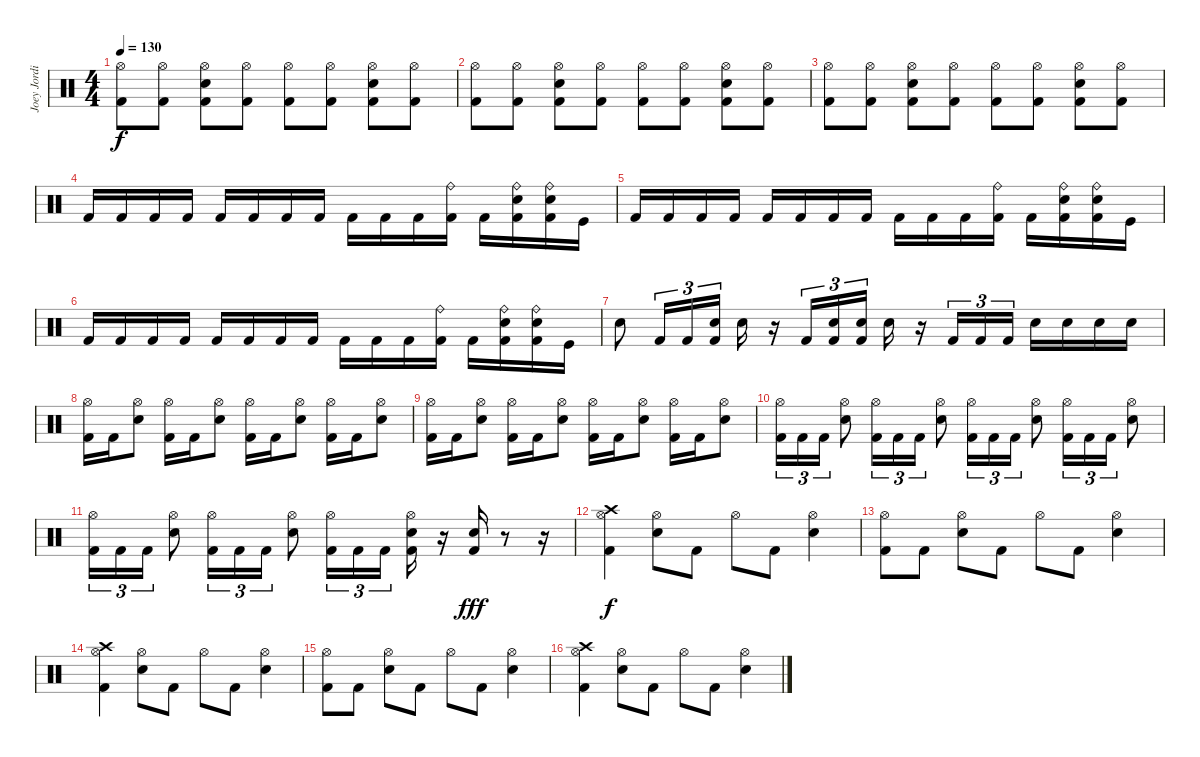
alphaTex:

\track ("Joey Jordison" "Joey Jordi") {instrument percussion}
\staff {score}
\articulation defaults
\ts (4 4)
\tempo 130
\clef neutral
\ks c
("Hi-Hat (open)" "Kick (hit) 2").8{dy f} ("Hi-Hat (open)" "Kick (hit) 2").8 ("Hi-Hat (open)" "Electric Snare (hit)" "Kick (hit) 2").8 ("Hi-Hat (open)" "Kick (hit) 2").8 ("Hi-Hat (open)" "Kick (hit) 2").8 ("Hi-Hat (open)" "Kick (hit) 2").8 ("Hi-Hat (open)" "Electric Snare (hit)" "Kick (hit) 2").8 ("Hi-Hat (open)" "Kick (hit) 2").8 |
("Hi-Hat (open)" "Kick (hit) 2").8 ("Hi-Hat (open)" "Kick (hit) 2").8 ("Hi-Hat (open)" "Electric Snare (hit)" "Kick (hit) 2").8 ("Hi-Hat (open)" "Kick (hit) 2").8 ("Hi-Hat (open)" "Kick (hit) 2").8 ("Hi-Hat (open)" "Kick (hit) 2").8 ("Hi-Hat (open)" "Electric Snare (hit)" "Kick (hit) 2").8 ("Hi-Hat (open)" "Kick (hit) 2").8 |
("Hi-Hat (open)" "Kick (hit) 2").8 ("Hi-Hat (open)" "Kick (hit) 2").8 ("Hi-Hat (open)" "Electric Snare (hit)" "Kick (hit) 2").8 ("Hi-Hat (open)" "Kick (hit) 2").8 ("Hi-Hat (open)" "Kick (hit) 2").8 ("Hi-Hat (open)" "Kick (hit) 2").8 ("Hi-Hat (open)" "Electric Snare (hit)" "Kick (hit) 2").8 ("Hi-Hat (open)" "Kick (hit) 2").8 |
"Kick (hit) 2".16 "Kick (hit) 2".16 "Kick (hit) 2".16 "Kick (hit) 2".16 "Kick (hit) 2".16 "Kick (hit) 2".16 "Kick (hit) 2".16 "Kick (hit) 2".16 "Kick (hit) 2".16 "Kick (hit) 2".16 "Kick (hit) 2".16 ("Ride (bell)" "Kick (hit) 2").16 "Kick (hit) 2".16 ("Ride (bell)" "Electric Snare (hit)" "Kick (hit) 2").16 ("Ride (bell)" "Electric Snare (hit)" "Kick (hit) 2").16 "Kick (hit)".16 |
"Kick (hit) 2".16 "Kick (hit) 2".16 "Kick (hit) 2".16 "Kick (hit) 2".16 "Kick (hit) 2".16 "Kick (hit) 2".16 "Kick (hit) 2".16 "Kick (hit) 2".16 "Kick (hit) 2".16 "Kick (hit) 2".16 "Kick (hit) 2".16 ("Ride (bell)" "Kick (hit) 2").16 "Kick (hit) 2".16 ("Ride (bell)" "Electric Snare (hit)" "Kick (hit) 2").16 ("Ride (bell)" "Electric Snare (hit)" "Kick (hit) 2").16 "Kick (hit)".16 |
"Kick (hit) 2".16 "Kick (hit) 2".16 "Kick (hit) 2".16 "Kick (hit) 2".16 "Kick (hit) 2".16 "Kick (hit) 2".16 "Kick (hit) 2".16 "Kick (hit) 2".16 "Kick (hit) 2".16 "Kick (hit) 2".16 "Kick (hit) 2".16 ("Ride (bell)" "Kick (hit) 2").16 "Kick (hit) 2".16 ("Ride (bell)" "Electric Snare (hit)" "Kick (hit) 2").16 ("Ride (bell)" "Electric Snare (hit)" "Kick (hit) 2").16 "Kick (hit)".16 |
"Electric Snare (hit)".8 "Kick (hit) 2".16{tu (3 2)} "Kick (hit) 2".16{tu (3 2)} ("Snare (hit)" "Kick (hit) 2").16{tu (3 2)} "Electric Snare (hit)".16 r.16 "Kick (hit) 2".16{tu (3 2)} ("Snare (hit)" "Kick (hit) 2").16{tu (3 2)} ("Snare (hit)" "Kick (hit) 2").16{tu (3 2)} "Electric Snare (hit)".16 r.16 "Kick (hit) 2".16{tu (3 2)} "Kick (hit) 2".16{tu (3 2)} "Kick (hit) 2".16{tu (3 2)} "Electric Snare (hit)".16 "Electric Snare (hit)".16 "Electric Snare (hit)".16 "Electric Snare (hit)".16 |
("Hi-Hat (open)" "Kick (hit) 2").16 "Kick (hit) 2".16 ("Hi-Hat (open)" "Electric Snare (hit)").8 ("Hi-Hat (open)" "Kick (hit) 2").16 "Kick (hit) 2".16 ("Hi-Hat (open)" "Electric Snare (hit)").8 ("Hi-Hat (open)" "Kick (hit) 2").16 "Kick (hit) 2".16 ("Hi-Hat (open)" "Electric Snare (hit)").8 ("Hi-Hat (open)" "Kick (hit) 2").16 "Kick (hit) 2".16 ("Hi-Hat (open)" "Electric Snare (hit)").8 |
("Hi-Hat (open)" "Kick (hit) 2").16 "Kick (hit) 2".16 ("Hi-Hat (open)" "Electric Snare (hit)").8 ("Hi-Hat (open)" "Kick (hit) 2").16 "Kick (hit) 2".16 ("Hi-Hat (open)" "Electric Snare (hit)").8 ("Hi-Hat (open)" "Kick (hit) 2").16 "Kick (hit) 2".16 ("Hi-Hat (open)" "Electric Snare (hit)").8 ("Hi-Hat (open)" "Kick (hit) 2").16 "Kick (hit) 2".16 ("Hi-Hat (open)" "Electric Snare (hit)").8 |
("Hi-Hat (open)" "Kick (hit) 2").16{tu (3 2)} "Kick (hit) 2".16{tu (3 2)} "Kick (hit) 2".16{tu (3 2)} ("Hi-Hat (open)" "Electric Snare (hit)").8 ("Hi-Hat (open)" "Kick (hit) 2").16{tu (3 2)} "Kick (hit) 2".16{tu (3 2)} "Kick (hit) 2".16{tu (3 2)} ("Hi-Hat (open)" "Electric Snare (hit)").8 ("Hi-Hat (open)" "Kick (hit) 2").16{tu (3 2)} "Kick (hit) 2".16{tu (3 2)} "Kick (hit) 2".16{tu (3 2)} ("Hi-Hat (open)" "Electric Snare (hit)").8 ("Hi-Hat (open)" "Kick (hit) 2").16{tu (3 2)} "Kick (hit) 2".16{tu (3 2)} "Kick (hit) 2".16{tu (3 2)} ("Hi-Hat (open)" "Electric Snare (hit)").8 |
("Hi-Hat (open)" "Kick (hit) 2").16{tu (3 2)} "Kick (hit) 2".16{tu (3 2)} "Kick (hit) 2".16{tu (3 2)} ("Hi-Hat (open)" "Electric Snare (hit)").8 ("Hi-Hat (open)" "Kick (hit) 2").16{tu (3 2)} "Kick (hit) 2".16{tu (3 2)} "Kick (hit) 2".16{tu (3 2)} ("Hi-Hat (open)" "Electric Snare (hit)").8 ("Hi-Hat (open)" "Kick (hit) 2").16{tu (3 2)} "Kick (hit) 2".16{tu (3 2)} "Kick (hit) 2".16{tu (3 2)} ("Hi-Hat (open)" "Kick (hit) 2" "Electric Snare (hit)").16 r.16 ("Electric Snare (hit)" "Kick (hit) 2").16{dy fff} r.8 r.16 |
("Hi-Hat (open)" "Crash high (hit)" "Kick (hit) 2").4{dy f} ("Hi-Hat (open)" "Electric Snare (hit)").8 "Kick (hit) 2".8 "Hi-Hat (open)".8 "Kick (hit) 2".8 ("Hi-Hat (open)" "Electric Snare (hit)").4 |
("Hi-Hat (open)" "Kick (hit) 2").8 "Kick (hit) 2".8 ("Hi-Hat (open)" "Electric Snare (hit)").8 "Kick (hit) 2".8 "Hi-Hat (open)".8 "Kick (hit) 2".8 ("Hi-Hat (open)" "Electric Snare (hit)").4 |
("Hi-Hat (open)" "Crash high (hit)" "Kick (hit) 2").4 ("Hi-Hat (open)" "Electric Snare (hit)").8 "Kick (hit) 2".8 "Hi-Hat (open)".8 "Kick (hit) 2".8 ("Hi-Hat (open)" "Electric Snare (hit)").4 |
("Hi-Hat (open)" "Kick (hit) 2").8 "Kick (hit) 2".8 ("Hi-Hat (open)" "Electric Snare (hit)").8 "Kick (hit) 2".8 "Hi-Hat (open)".8 "Kick (hit) 2".8 ("Hi-Hat (open)" "Electric Snare (hit)").4 |
("Hi-Hat (open)" "Crash high (hit)" "Kick (hit) 2").4 ("Hi-Hat (open)" "Electric Snare (hit)").8 "Kick (hit) 2".8 "Hi-Hat (open)".8 "Kick (hit) 2".8 ("Hi-Hat (open)" "Electric Snare (hit)").4
